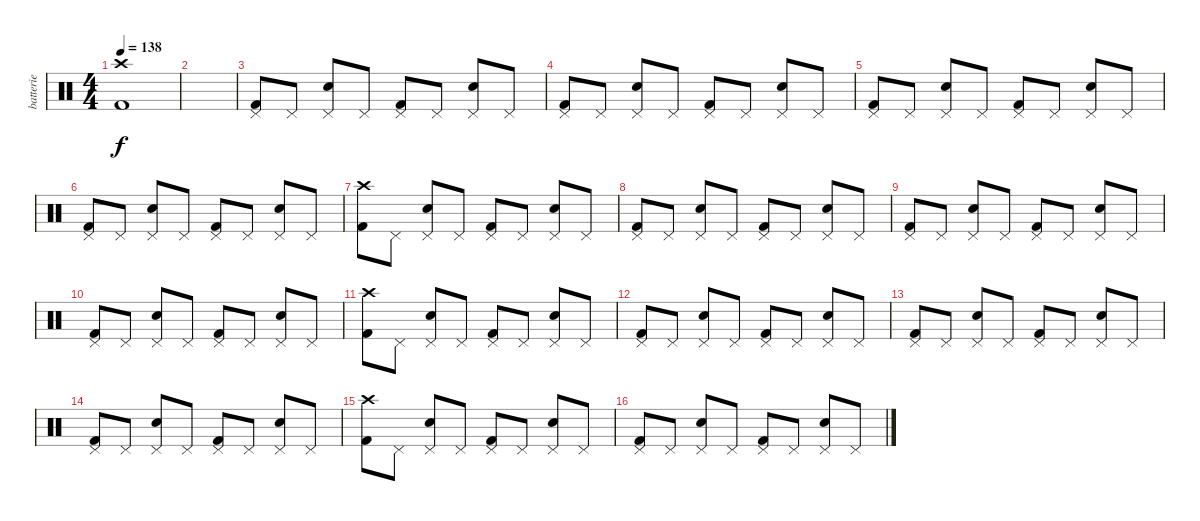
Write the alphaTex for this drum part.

\track ("batterie" "batterie") {instrument percussion}
\staff {score}
\articulation defaults
\ts (4 4)
\tempo 138
\clef neutral
\ks c
("Crash high (hit)" "Kick (hit) 2").1{dy f} |
|
("Kick (hit) 2" "Pedal Hi-Hat (hit)").8 "Pedal Hi-Hat (hit)".8 ("Electric Snare (hit)" "Pedal Hi-Hat (hit)").8 "Pedal Hi-Hat (hit)".8 ("Kick (hit) 2" "Pedal Hi-Hat (hit)").8 "Pedal Hi-Hat (hit)".8 ("Electric Snare (hit)" "Pedal Hi-Hat (hit)").8 "Pedal Hi-Hat (hit)".8 |
("Kick (hit) 2" "Pedal Hi-Hat (hit)").8 "Pedal Hi-Hat (hit)".8 ("Electric Snare (hit)" "Pedal Hi-Hat (hit)").8 "Pedal Hi-Hat (hit)".8 ("Kick (hit) 2" "Pedal Hi-Hat (hit)").8 "Pedal Hi-Hat (hit)".8 ("Electric Snare (hit)" "Pedal Hi-Hat (hit)").8 "Pedal Hi-Hat (hit)".8 |
("Kick (hit) 2" "Pedal Hi-Hat (hit)").8 "Pedal Hi-Hat (hit)".8 ("Electric Snare (hit)" "Pedal Hi-Hat (hit)").8 "Pedal Hi-Hat (hit)".8 ("Kick (hit) 2" "Pedal Hi-Hat (hit)").8 "Pedal Hi-Hat (hit)".8 ("Electric Snare (hit)" "Pedal Hi-Hat (hit)").8 "Pedal Hi-Hat (hit)".8 |
("Kick (hit) 2" "Pedal Hi-Hat (hit)").8 "Pedal Hi-Hat (hit)".8 ("Electric Snare (hit)" "Pedal Hi-Hat (hit)").8 "Pedal Hi-Hat (hit)".8 ("Kick (hit) 2" "Pedal Hi-Hat (hit)").8 "Pedal Hi-Hat (hit)".8 ("Electric Snare (hit)" "Pedal Hi-Hat (hit)").8 "Pedal Hi-Hat (hit)".8 |
("Crash high (hit)" "Kick (hit) 2").8 "Pedal Hi-Hat (hit)".8 ("Electric Snare (hit)" "Pedal Hi-Hat (hit)").8 "Pedal Hi-Hat (hit)".8 ("Kick (hit) 2" "Pedal Hi-Hat (hit)").8 "Pedal Hi-Hat (hit)".8 ("Electric Snare (hit)" "Pedal Hi-Hat (hit)").8 "Pedal Hi-Hat (hit)".8 |
("Kick (hit) 2" "Pedal Hi-Hat (hit)").8 "Pedal Hi-Hat (hit)".8 ("Electric Snare (hit)" "Pedal Hi-Hat (hit)").8 "Pedal Hi-Hat (hit)".8 ("Kick (hit) 2" "Pedal Hi-Hat (hit)").8 "Pedal Hi-Hat (hit)".8 ("Electric Snare (hit)" "Pedal Hi-Hat (hit)").8 "Pedal Hi-Hat (hit)".8 |
("Kick (hit) 2" "Pedal Hi-Hat (hit)").8 "Pedal Hi-Hat (hit)".8 ("Electric Snare (hit)" "Pedal Hi-Hat (hit)").8 "Pedal Hi-Hat (hit)".8 ("Kick (hit) 2" "Pedal Hi-Hat (hit)").8 "Pedal Hi-Hat (hit)".8 ("Electric Snare (hit)" "Pedal Hi-Hat (hit)").8 "Pedal Hi-Hat (hit)".8 |
("Kick (hit) 2" "Pedal Hi-Hat (hit)").8 "Pedal Hi-Hat (hit)".8 ("Electric Snare (hit)" "Pedal Hi-Hat (hit)").8 "Pedal Hi-Hat (hit)".8 ("Kick (hit) 2" "Pedal Hi-Hat (hit)").8 "Pedal Hi-Hat (hit)".8 ("Electric Snare (hit)" "Pedal Hi-Hat (hit)").8 "Pedal Hi-Hat (hit)".8 |
("Crash high (hit)" "Kick (hit) 2").8 "Pedal Hi-Hat (hit)".8 ("Electric Snare (hit)" "Pedal Hi-Hat (hit)").8 "Pedal Hi-Hat (hit)".8 ("Kick (hit) 2" "Pedal Hi-Hat (hit)").8 "Pedal Hi-Hat (hit)".8 ("Electric Snare (hit)" "Pedal Hi-Hat (hit)").8 "Pedal Hi-Hat (hit)".8 |
("Kick (hit) 2" "Pedal Hi-Hat (hit)").8 "Pedal Hi-Hat (hit)".8 ("Electric Snare (hit)" "Pedal Hi-Hat (hit)").8 "Pedal Hi-Hat (hit)".8 ("Kick (hit) 2" "Pedal Hi-Hat (hit)").8 "Pedal Hi-Hat (hit)".8 ("Electric Snare (hit)" "Pedal Hi-Hat (hit)").8 "Pedal Hi-Hat (hit)".8 |
("Kick (hit) 2" "Pedal Hi-Hat (hit)").8 "Pedal Hi-Hat (hit)".8 ("Electric Snare (hit)" "Pedal Hi-Hat (hit)").8 "Pedal Hi-Hat (hit)".8 ("Kick (hit) 2" "Pedal Hi-Hat (hit)").8 "Pedal Hi-Hat (hit)".8 ("Electric Snare (hit)" "Pedal Hi-Hat (hit)").8 "Pedal Hi-Hat (hit)".8 |
("Kick (hit) 2" "Pedal Hi-Hat (hit)").8 "Pedal Hi-Hat (hit)".8 ("Electric Snare (hit)" "Pedal Hi-Hat (hit)").8 "Pedal Hi-Hat (hit)".8 ("Kick (hit) 2" "Pedal Hi-Hat (hit)").8 "Pedal Hi-Hat (hit)".8 ("Electric Snare (hit)" "Pedal Hi-Hat (hit)").8 "Pedal Hi-Hat (hit)".8 |
("Crash high (hit)" "Kick (hit) 2").8 "Pedal Hi-Hat (hit)".8 ("Electric Snare (hit)" "Pedal Hi-Hat (hit)").8 "Pedal Hi-Hat (hit)".8 ("Kick (hit) 2" "Pedal Hi-Hat (hit)").8 "Pedal Hi-Hat (hit)".8 ("Electric Snare (hit)" "Pedal Hi-Hat (hit)").8 "Pedal Hi-Hat (hit)".8 |
("Kick (hit) 2" "Pedal Hi-Hat (hit)").8 "Pedal Hi-Hat (hit)".8 ("Electric Snare (hit)" "Pedal Hi-Hat (hit)").8 "Pedal Hi-Hat (hit)".8 ("Kick (hit) 2" "Pedal Hi-Hat (hit)").8 "Pedal Hi-Hat (hit)".8 ("Electric Snare (hit)" "Pedal Hi-Hat (hit)").8 "Pedal Hi-Hat (hit)".8
